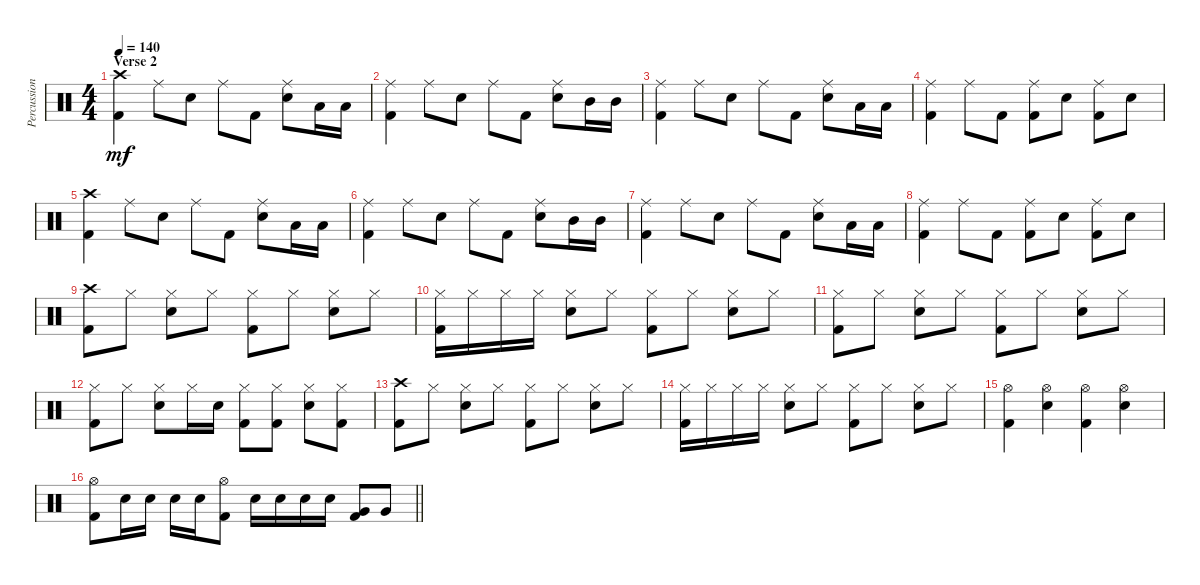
\track ("Percussion" "Percussion") {instrument percussion}
\staff {score}
\articulation defaults
\ts (4 4)
\section ("" "Verse 2")
\tempo 140
\clef neutral
\ks c
("Crash high (hit)" "Kick (hit) 2").4{dy mf} "Ride (middle)".8 "Snare (hit) 2".8 "Ride (middle)".8 "Kick (hit) 2".8 ("Ride (middle)" "Snare (hit) 2").8 "Low Tom (hit)".16 "Low Tom (hit)".16 |
("Ride (middle)" "Kick (hit) 2").4 "Ride (middle)".8 "Snare (hit) 2".8 "Ride (middle)".8 "Kick (hit) 2".8 ("Ride (middle)" "Snare (hit) 2").8 "Mid Tom (hit)".16 "Mid Tom (hit)".16 |
("Ride (middle)" "Kick (hit) 2").4 "Ride (middle)".8 "Snare (hit) 2".8 "Ride (middle)".8 "Kick (hit) 2".8 ("Ride (middle)" "Snare (hit) 2").8 "Low Tom (hit)".16 "Low Tom (hit)".16 |
("Ride (middle)" "Kick (hit) 2").4 "Ride (middle)".8 "Kick (hit) 2".8 ("Ride (middle)" "Kick (hit) 2").8 "Snare (hit) 2".8 ("Ride (middle)" "Kick (hit) 2").8 "Snare (hit) 2".8 |
("Crash high (hit)" "Kick (hit) 2").4 "Ride (middle)".8 "Snare (hit) 2".8 "Ride (middle)".8 "Kick (hit) 2".8 ("Ride (middle)" "Snare (hit) 2").8 "Low Tom (hit)".16 "Low Tom (hit)".16 |
("Ride (middle)" "Kick (hit) 2").4 "Ride (middle)".8 "Snare (hit) 2".8 "Ride (middle)".8 "Kick (hit) 2".8 ("Ride (middle)" "Snare (hit) 2").8 "Mid Tom (hit)".16 "Mid Tom (hit)".16 |
("Ride (middle)" "Kick (hit) 2").4 "Ride (middle)".8 "Snare (hit) 2".8 "Ride (middle)".8 "Kick (hit) 2".8 ("Ride (middle)" "Snare (hit) 2").8 "Low Tom (hit)".16 "Low Tom (hit)".16 |
("Ride (middle)" "Kick (hit) 2").4 "Ride (middle)".8 "Kick (hit) 2".8 ("Ride (middle)" "Kick (hit) 2").8 "Snare (hit) 2".8 ("Ride (middle)" "Kick (hit) 2").8 "Snare (hit) 2".8 |
("Crash high (hit)" "Kick (hit) 2").8 "Hi-Hat (closed)".8 ("Hi-Hat (closed)" "Snare (hit) 2").8 "Hi-Hat (closed)".8 ("Hi-Hat (closed)" "Kick (hit) 2").8 "Hi-Hat (closed)".8 ("Hi-Hat (closed)" "Snare (hit) 2").8 "Hi-Hat (closed)".8 |
("Hi-Hat (closed)" "Kick (hit) 2").16 "Hi-Hat (closed)".16 "Hi-Hat (closed)".16 "Hi-Hat (closed)".16 ("Hi-Hat (closed)" "Snare (hit) 2").8 "Hi-Hat (closed)".8 ("Hi-Hat (closed)" "Kick (hit) 2").8 "Hi-Hat (closed)".8 ("Hi-Hat (closed)" "Snare (hit) 2").8 "Hi-Hat (closed)".8 |
("Hi-Hat (closed)" "Kick (hit) 2").8 "Hi-Hat (closed)".8 ("Hi-Hat (closed)" "Snare (hit) 2").8 "Hi-Hat (closed)".8 ("Hi-Hat (closed)" "Kick (hit) 2").8 "Hi-Hat (closed)".8 ("Hi-Hat (closed)" "Snare (hit) 2").8 "Hi-Hat (closed)".8 |
("Hi-Hat (closed)" "Kick (hit) 2").8 "Hi-Hat (closed)".8 ("Hi-Hat (closed)" "Snare (hit) 2").8 "Hi-Hat (closed)".16 "Snare (hit) 2".16 ("Hi-Hat (closed)" "Kick (hit) 2").8 ("Hi-Hat (closed)" "Kick (hit) 2").8 ("Hi-Hat (closed)" "Snare (hit) 2").8 ("Hi-Hat (closed)" "Kick (hit) 2").8 |
("Crash high (hit)" "Kick (hit) 2").8 "Hi-Hat (closed)".8 ("Hi-Hat (closed)" "Snare (hit) 2").8 "Hi-Hat (closed)".8 ("Hi-Hat (closed)" "Kick (hit) 2").8 "Hi-Hat (closed)".8 ("Hi-Hat (closed)" "Snare (hit) 2").8 "Hi-Hat (closed)".8 |
("Hi-Hat (closed)" "Kick (hit) 2").16 "Hi-Hat (closed)".16 "Hi-Hat (closed)".16 "Hi-Hat (closed)".16 ("Hi-Hat (closed)" "Snare (hit) 2").8 "Hi-Hat (closed)".8 ("Hi-Hat (closed)" "Kick (hit) 2").8 "Hi-Hat (closed)".8 ("Hi-Hat (closed)" "Snare (hit) 2").8 "Hi-Hat (closed)".8 |
("Hi-Hat (open)" "Kick (hit) 2").4 ("Hi-Hat (open)" "Snare (hit) 2").4 ("Hi-Hat (open)" "Kick (hit) 2").4 ("Hi-Hat (open)" "Snare (hit) 2").4 |
\barLineRight lightlight
("Hi-Hat (open)" "Kick (hit) 2").8 "Snare (hit) 2".16 "Snare (hit) 2".16 "Snare (hit) 2".16 "Snare (hit) 2".16 ("Hi-Hat (open)" "Kick (hit) 2").8 "Snare (hit) 2".16 "Snare (hit) 2".16 "Snare (hit) 2".16 "Snare (hit) 2".16 ("Very Low Tom (hit)" "Kick (hit) 2").8 "Very Low Tom (hit)".8
